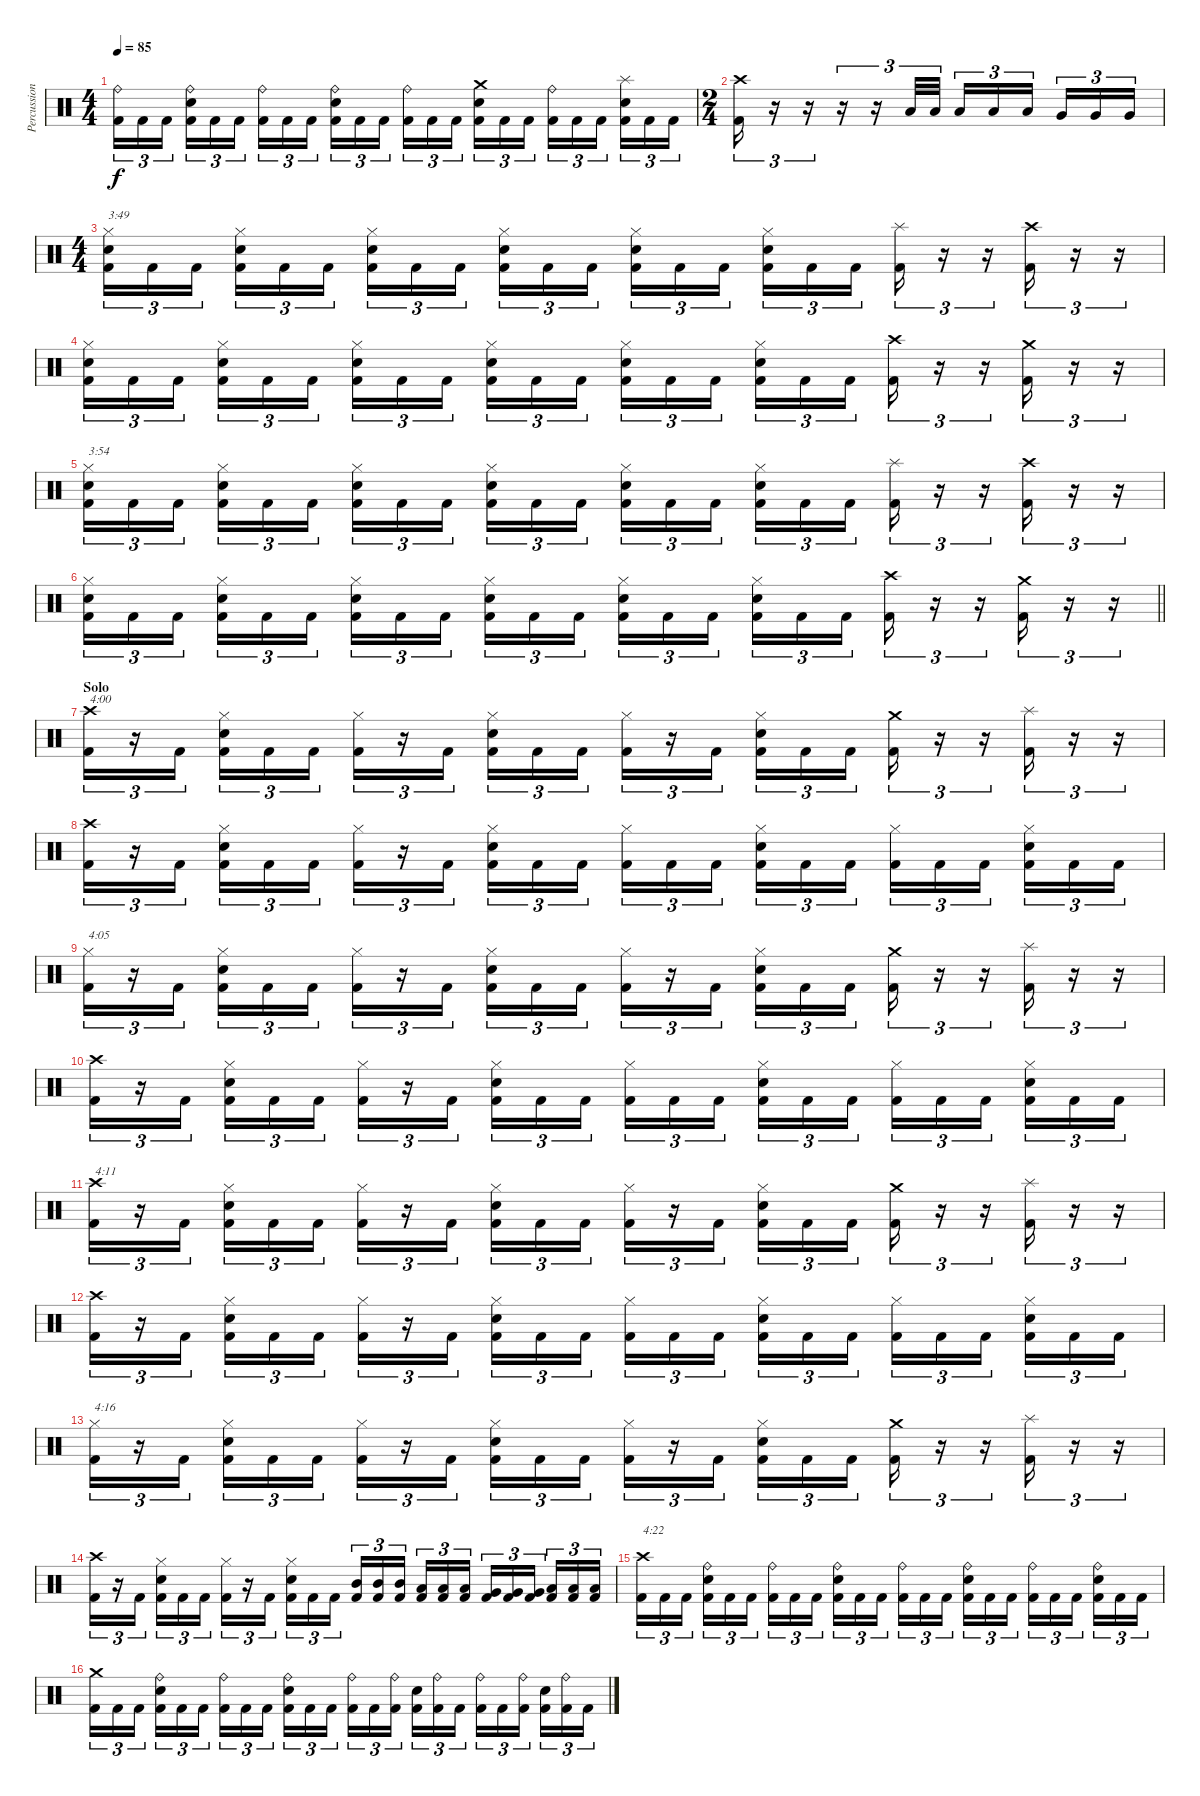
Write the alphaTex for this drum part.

\track ("Percussion" "Percussion") {instrument percussion}
\staff {score}
\articulation defaults
\ts (4 4)
\tempo 85
\clef neutral
\ks c
("Ride (bell)" "Kick (hit) 2").16{tu (3 2) dy f} "Kick (hit) 2".16{tu (3 2)} "Kick (hit) 2".16{tu (3 2)} ("Ride (bell)" "Electric Snare (hit)" "Kick (hit) 2").16{tu (3 2)} "Kick (hit) 2".16{tu (3 2)} "Kick (hit) 2".16{tu (3 2)} ("Ride (bell)" "Kick (hit) 2").16{tu (3 2)} "Kick (hit) 2".16{tu (3 2)} "Kick (hit) 2".16{tu (3 2)} ("Ride (bell)" "Electric Snare (hit)" "Kick (hit) 2").16{tu (3 2)} "Kick (hit) 2".16{tu (3 2)} "Kick (hit) 2".16{tu (3 2)} ("Ride (bell)" "Kick (hit) 2").16{tu (3 2)} "Kick (hit) 2".16{tu (3 2)} "Kick (hit) 2".16{tu (3 2)} ("Crash medium (hit)" "Electric Snare (hit)" "Kick (hit) 2").16{tu (3 2)} "Kick (hit) 2".16{tu (3 2)} "Kick (hit) 2".16{tu (3 2)} ("Ride (bell)" "Kick (hit) 2").16{tu (3 2)} "Kick (hit) 2".16{tu (3 2)} "Kick (hit) 2".16{tu (3 2)} ("Splash (hit)" "Electric Snare (hit)" "Kick (hit) 2").16{tu (3 2)} "Kick (hit) 2".16{tu (3 2)} "Kick (hit) 2".16{tu (3 2)} |
\ts (2 4)
("Crash high (hit)" "Kick (hit) 2").16{tu (3 2)} r.16{tu (3 2)} r.16{tu (3 2)} r.16{tu (3 2)} r.16{tu (3 2)} "Low Tom (hit)".32{tu (3 2)} "Low Tom (hit)".32{tu (3 2)} "Low Tom (hit)".16{tu (3 2)} "Low Tom (hit)".16{tu (3 2)} "Low Tom (hit)".16{tu (3 2)} "Very Low Tom (hit)".16{tu (3 2)} "Very Low Tom (hit)".16{tu (3 2)} "Very Low Tom (hit)".16{tu (3 2)} |
\ts (4 4)
("Hi-Hat (closed)" "Electric Snare (hit)" "Kick (hit) 2").16{tu (3 2) txt "3:49"} "Kick (hit) 2".16{tu (3 2)} "Kick (hit) 2".16{tu (3 2)} ("Hi-Hat (closed)" "Electric Snare (hit)" "Kick (hit) 2").16{tu (3 2)} "Kick (hit) 2".16{tu (3 2)} "Kick (hit) 2".16{tu (3 2)} ("Hi-Hat (closed)" "Electric Snare (hit)" "Kick (hit) 2").16{tu (3 2)} "Kick (hit) 2".16{tu (3 2)} "Kick (hit) 2".16{tu (3 2)} ("Hi-Hat (closed)" "Electric Snare (hit)" "Kick (hit) 2").16{tu (3 2)} "Kick (hit) 2".16{tu (3 2)} "Kick (hit) 2".16{tu (3 2)} ("Hi-Hat (closed)" "Electric Snare (hit)" "Kick (hit) 2").16{tu (3 2)} "Kick (hit) 2".16{tu (3 2)} "Kick (hit) 2".16{tu (3 2)} ("Hi-Hat (closed)" "Electric Snare (hit)" "Kick (hit) 2").16{tu (3 2)} "Kick (hit) 2".16{tu (3 2)} "Kick (hit) 2".16{tu (3 2)} ("Splash (hit)" "Kick (hit) 2").16{tu (3 2)} r.16{tu (3 2)} r.16{tu (3 2)} ("Crash high (hit)" "Kick (hit) 2").16{tu (3 2)} r.16{tu (3 2)} r.16{tu (3 2)} |
("Hi-Hat (closed)" "Electric Snare (hit)" "Kick (hit) 2").16{tu (3 2)} "Kick (hit) 2".16{tu (3 2)} "Kick (hit) 2".16{tu (3 2)} ("Hi-Hat (closed)" "Electric Snare (hit)" "Kick (hit) 2").16{tu (3 2)} "Kick (hit) 2".16{tu (3 2)} "Kick (hit) 2".16{tu (3 2)} ("Hi-Hat (closed)" "Electric Snare (hit)" "Kick (hit) 2").16{tu (3 2)} "Kick (hit) 2".16{tu (3 2)} "Kick (hit) 2".16{tu (3 2)} ("Hi-Hat (closed)" "Electric Snare (hit)" "Kick (hit) 2").16{tu (3 2)} "Kick (hit) 2".16{tu (3 2)} "Kick (hit) 2".16{tu (3 2)} ("Hi-Hat (closed)" "Electric Snare (hit)" "Kick (hit) 2").16{tu (3 2)} "Kick (hit) 2".16{tu (3 2)} "Kick (hit) 2".16{tu (3 2)} ("Hi-Hat (closed)" "Electric Snare (hit)" "Kick (hit) 2").16{tu (3 2)} "Kick (hit) 2".16{tu (3 2)} "Kick (hit) 2".16{tu (3 2)} ("Crash high (hit)" "Kick (hit) 2").16{tu (3 2)} r.16{tu (3 2)} r.16{tu (3 2)} ("Crash medium (hit)" "Kick (hit) 2").16{tu (3 2)} r.16{tu (3 2)} r.16{tu (3 2)} |
("Hi-Hat (closed)" "Electric Snare (hit)" "Kick (hit) 2").16{tu (3 2) txt "3:54"} "Kick (hit) 2".16{tu (3 2)} "Kick (hit) 2".16{tu (3 2)} ("Hi-Hat (closed)" "Electric Snare (hit)" "Kick (hit) 2").16{tu (3 2)} "Kick (hit) 2".16{tu (3 2)} "Kick (hit) 2".16{tu (3 2)} ("Hi-Hat (closed)" "Electric Snare (hit)" "Kick (hit) 2").16{tu (3 2)} "Kick (hit) 2".16{tu (3 2)} "Kick (hit) 2".16{tu (3 2)} ("Hi-Hat (closed)" "Electric Snare (hit)" "Kick (hit) 2").16{tu (3 2)} "Kick (hit) 2".16{tu (3 2)} "Kick (hit) 2".16{tu (3 2)} ("Hi-Hat (closed)" "Electric Snare (hit)" "Kick (hit) 2").16{tu (3 2)} "Kick (hit) 2".16{tu (3 2)} "Kick (hit) 2".16{tu (3 2)} ("Hi-Hat (closed)" "Electric Snare (hit)" "Kick (hit) 2").16{tu (3 2)} "Kick (hit) 2".16{tu (3 2)} "Kick (hit) 2".16{tu (3 2)} ("Splash (hit)" "Kick (hit) 2").16{tu (3 2)} r.16{tu (3 2)} r.16{tu (3 2)} ("Crash high (hit)" "Kick (hit) 2").16{tu (3 2)} r.16{tu (3 2)} r.16{tu (3 2)} |
\barLineRight lightlight
("Hi-Hat (closed)" "Electric Snare (hit)" "Kick (hit) 2").16{tu (3 2)} "Kick (hit) 2".16{tu (3 2)} "Kick (hit) 2".16{tu (3 2)} ("Hi-Hat (closed)" "Electric Snare (hit)" "Kick (hit) 2").16{tu (3 2)} "Kick (hit) 2".16{tu (3 2)} "Kick (hit) 2".16{tu (3 2)} ("Hi-Hat (closed)" "Electric Snare (hit)" "Kick (hit) 2").16{tu (3 2)} "Kick (hit) 2".16{tu (3 2)} "Kick (hit) 2".16{tu (3 2)} ("Hi-Hat (closed)" "Electric Snare (hit)" "Kick (hit) 2").16{tu (3 2)} "Kick (hit) 2".16{tu (3 2)} "Kick (hit) 2".16{tu (3 2)} ("Hi-Hat (closed)" "Electric Snare (hit)" "Kick (hit) 2").16{tu (3 2)} "Kick (hit) 2".16{tu (3 2)} "Kick (hit) 2".16{tu (3 2)} ("Hi-Hat (closed)" "Electric Snare (hit)" "Kick (hit) 2").16{tu (3 2)} "Kick (hit) 2".16{tu (3 2)} "Kick (hit) 2".16{tu (3 2)} ("Crash high (hit)" "Kick (hit) 2").16{tu (3 2)} r.16{tu (3 2)} r.16{tu (3 2)} ("Crash medium (hit)" "Kick (hit) 2").16{tu (3 2)} r.16{tu (3 2)} r.16{tu (3 2)} |
\section ("" "Solo")
("Crash high (hit)" "Kick (hit) 2").16{tu (3 2) txt "4:00"} r.16{tu (3 2)} "Kick (hit) 2".16{tu (3 2)} ("Hi-Hat (closed)" "Electric Snare (hit)" "Kick (hit) 2").16{tu (3 2)} "Kick (hit) 2".16{tu (3 2)} "Kick (hit) 2".16{tu (3 2)} ("Hi-Hat (closed)" "Kick (hit) 2").16{tu (3 2)} r.16{tu (3 2)} "Kick (hit) 2".16{tu (3 2)} ("Hi-Hat (closed)" "Electric Snare (hit)" "Kick (hit) 2").16{tu (3 2)} "Kick (hit) 2".16{tu (3 2)} "Kick (hit) 2".16{tu (3 2)} ("Hi-Hat (closed)" "Kick (hit) 2").16{tu (3 2)} r.16{tu (3 2)} "Kick (hit) 2".16{tu (3 2)} ("Hi-Hat (closed)" "Electric Snare (hit)" "Kick (hit) 2").16{tu (3 2)} "Kick (hit) 2".16{tu (3 2)} "Kick (hit) 2".16{tu (3 2)} ("Crash medium (hit)" "Kick (hit) 2").16{tu (3 2)} r.16{tu (3 2)} r.16{tu (3 2)} ("Splash (hit)" "Kick (hit) 2").16{tu (3 2)} r.16{tu (3 2)} r.16{tu (3 2)} |
("Crash high (hit)" "Kick (hit) 2").16{tu (3 2)} r.16{tu (3 2)} "Kick (hit) 2".16{tu (3 2)} ("Hi-Hat (closed)" "Electric Snare (hit)" "Kick (hit) 2").16{tu (3 2)} "Kick (hit) 2".16{tu (3 2)} "Kick (hit) 2".16{tu (3 2)} ("Hi-Hat (closed)" "Kick (hit) 2").16{tu (3 2)} r.16{tu (3 2)} "Kick (hit) 2".16{tu (3 2)} ("Hi-Hat (closed)" "Electric Snare (hit)" "Kick (hit) 2").16{tu (3 2)} "Kick (hit) 2".16{tu (3 2)} "Kick (hit) 2".16{tu (3 2)} ("Hi-Hat (closed)" "Kick (hit) 2").16{tu (3 2)} "Kick (hit) 2".16{tu (3 2)} "Kick (hit) 2".16{tu (3 2)} ("Hi-Hat (closed)" "Electric Snare (hit)" "Kick (hit) 2").16{tu (3 2)} "Kick (hit) 2".16{tu (3 2)} "Kick (hit) 2".16{tu (3 2)} ("Hi-Hat (closed)" "Kick (hit) 2").16{tu (3 2)} "Kick (hit) 2".16{tu (3 2)} "Kick (hit) 2".16{tu (3 2)} ("Hi-Hat (closed)" "Electric Snare (hit)" "Kick (hit) 2").16{tu (3 2)} "Kick (hit) 2".16{tu (3 2)} "Kick (hit) 2".16{tu (3 2)} |
("Hi-Hat (closed)" "Kick (hit) 2").16{tu (3 2) txt "4:05"} r.16{tu (3 2)} "Kick (hit) 2".16{tu (3 2)} ("Hi-Hat (closed)" "Electric Snare (hit)" "Kick (hit) 2").16{tu (3 2)} "Kick (hit) 2".16{tu (3 2)} "Kick (hit) 2".16{tu (3 2)} ("Hi-Hat (closed)" "Kick (hit) 2").16{tu (3 2)} r.16{tu (3 2)} "Kick (hit) 2".16{tu (3 2)} ("Hi-Hat (closed)" "Electric Snare (hit)" "Kick (hit) 2").16{tu (3 2)} "Kick (hit) 2".16{tu (3 2)} "Kick (hit) 2".16{tu (3 2)} ("Hi-Hat (closed)" "Kick (hit) 2").16{tu (3 2)} r.16{tu (3 2)} "Kick (hit) 2".16{tu (3 2)} ("Hi-Hat (closed)" "Electric Snare (hit)" "Kick (hit) 2").16{tu (3 2)} "Kick (hit) 2".16{tu (3 2)} "Kick (hit) 2".16{tu (3 2)} ("Crash medium (hit)" "Kick (hit) 2").16{tu (3 2)} r.16{tu (3 2)} r.16{tu (3 2)} ("Splash (hit)" "Kick (hit) 2").16{tu (3 2)} r.16{tu (3 2)} r.16{tu (3 2)} |
("Crash high (hit)" "Kick (hit) 2").16{tu (3 2)} r.16{tu (3 2)} "Kick (hit) 2".16{tu (3 2)} ("Hi-Hat (closed)" "Electric Snare (hit)" "Kick (hit) 2").16{tu (3 2)} "Kick (hit) 2".16{tu (3 2)} "Kick (hit) 2".16{tu (3 2)} ("Hi-Hat (closed)" "Kick (hit) 2").16{tu (3 2)} r.16{tu (3 2)} "Kick (hit) 2".16{tu (3 2)} ("Hi-Hat (closed)" "Electric Snare (hit)" "Kick (hit) 2").16{tu (3 2)} "Kick (hit) 2".16{tu (3 2)} "Kick (hit) 2".16{tu (3 2)} ("Hi-Hat (closed)" "Kick (hit) 2").16{tu (3 2)} "Kick (hit) 2".16{tu (3 2)} "Kick (hit) 2".16{tu (3 2)} ("Hi-Hat (closed)" "Electric Snare (hit)" "Kick (hit) 2").16{tu (3 2)} "Kick (hit) 2".16{tu (3 2)} "Kick (hit) 2".16{tu (3 2)} ("Hi-Hat (closed)" "Kick (hit) 2").16{tu (3 2)} "Kick (hit) 2".16{tu (3 2)} "Kick (hit) 2".16{tu (3 2)} ("Hi-Hat (closed)" "Electric Snare (hit)" "Kick (hit) 2").16{tu (3 2)} "Kick (hit) 2".16{tu (3 2)} "Kick (hit) 2".16{tu (3 2)} |
("Crash high (hit)" "Kick (hit) 2").16{tu (3 2) txt "4:11"} r.16{tu (3 2)} "Kick (hit) 2".16{tu (3 2)} ("Hi-Hat (closed)" "Electric Snare (hit)" "Kick (hit) 2").16{tu (3 2)} "Kick (hit) 2".16{tu (3 2)} "Kick (hit) 2".16{tu (3 2)} ("Hi-Hat (closed)" "Kick (hit) 2").16{tu (3 2)} r.16{tu (3 2)} "Kick (hit) 2".16{tu (3 2)} ("Hi-Hat (closed)" "Electric Snare (hit)" "Kick (hit) 2").16{tu (3 2)} "Kick (hit) 2".16{tu (3 2)} "Kick (hit) 2".16{tu (3 2)} ("Hi-Hat (closed)" "Kick (hit) 2").16{tu (3 2)} r.16{tu (3 2)} "Kick (hit) 2".16{tu (3 2)} ("Hi-Hat (closed)" "Electric Snare (hit)" "Kick (hit) 2").16{tu (3 2)} "Kick (hit) 2".16{tu (3 2)} "Kick (hit) 2".16{tu (3 2)} ("Crash medium (hit)" "Kick (hit) 2").16{tu (3 2)} r.16{tu (3 2)} r.16{tu (3 2)} ("Splash (hit)" "Kick (hit) 2").16{tu (3 2)} r.16{tu (3 2)} r.16{tu (3 2)} |
("Crash high (hit)" "Kick (hit) 2").16{tu (3 2)} r.16{tu (3 2)} "Kick (hit) 2".16{tu (3 2)} ("Hi-Hat (closed)" "Electric Snare (hit)" "Kick (hit) 2").16{tu (3 2)} "Kick (hit) 2".16{tu (3 2)} "Kick (hit) 2".16{tu (3 2)} ("Hi-Hat (closed)" "Kick (hit) 2").16{tu (3 2)} r.16{tu (3 2)} "Kick (hit) 2".16{tu (3 2)} ("Hi-Hat (closed)" "Electric Snare (hit)" "Kick (hit) 2").16{tu (3 2)} "Kick (hit) 2".16{tu (3 2)} "Kick (hit) 2".16{tu (3 2)} ("Hi-Hat (closed)" "Kick (hit) 2").16{tu (3 2)} "Kick (hit) 2".16{tu (3 2)} "Kick (hit) 2".16{tu (3 2)} ("Hi-Hat (closed)" "Electric Snare (hit)" "Kick (hit) 2").16{tu (3 2)} "Kick (hit) 2".16{tu (3 2)} "Kick (hit) 2".16{tu (3 2)} ("Hi-Hat (closed)" "Kick (hit) 2").16{tu (3 2)} "Kick (hit) 2".16{tu (3 2)} "Kick (hit) 2".16{tu (3 2)} ("Hi-Hat (closed)" "Electric Snare (hit)" "Kick (hit) 2").16{tu (3 2)} "Kick (hit) 2".16{tu (3 2)} "Kick (hit) 2".16{tu (3 2)} |
("Hi-Hat (closed)" "Kick (hit) 2").16{tu (3 2) txt "4:16"} r.16{tu (3 2)} "Kick (hit) 2".16{tu (3 2)} ("Hi-Hat (closed)" "Electric Snare (hit)" "Kick (hit) 2").16{tu (3 2)} "Kick (hit) 2".16{tu (3 2)} "Kick (hit) 2".16{tu (3 2)} ("Hi-Hat (closed)" "Kick (hit) 2").16{tu (3 2)} r.16{tu (3 2)} "Kick (hit) 2".16{tu (3 2)} ("Hi-Hat (closed)" "Electric Snare (hit)" "Kick (hit) 2").16{tu (3 2)} "Kick (hit) 2".16{tu (3 2)} "Kick (hit) 2".16{tu (3 2)} ("Hi-Hat (closed)" "Kick (hit) 2").16{tu (3 2)} r.16{tu (3 2)} "Kick (hit) 2".16{tu (3 2)} ("Hi-Hat (closed)" "Electric Snare (hit)" "Kick (hit) 2").16{tu (3 2)} "Kick (hit) 2".16{tu (3 2)} "Kick (hit) 2".16{tu (3 2)} ("Crash medium (hit)" "Kick (hit) 2").16{tu (3 2)} r.16{tu (3 2)} r.16{tu (3 2)} ("Splash (hit)" "Kick (hit) 2").16{tu (3 2)} r.16{tu (3 2)} r.16{tu (3 2)} |
("Crash high (hit)" "Kick (hit) 2").16{tu (3 2)} r.16{tu (3 2)} "Kick (hit) 2".16{tu (3 2)} ("Hi-Hat (closed)" "Electric Snare (hit)" "Kick (hit) 2").16{tu (3 2)} "Kick (hit) 2".16{tu (3 2)} "Kick (hit) 2".16{tu (3 2)} ("Hi-Hat (closed)" "Kick (hit) 2").16{tu (3 2)} r.16{tu (3 2)} "Kick (hit) 2".16{tu (3 2)} ("Hi-Hat (closed)" "Electric Snare (hit)" "Kick (hit) 2").16{tu (3 2)} "Kick (hit) 2".16{tu (3 2)} "Kick (hit) 2".16{tu (3 2)} ("Mid Tom (hit)" "Kick (hit) 2").16{tu (3 2)} ("Mid Tom (hit)" "Kick (hit) 2").16{tu (3 2)} ("Mid Tom (hit)" "Kick (hit) 2").16{tu (3 2)} ("Low Tom (hit)" "Kick (hit) 2").16{tu (3 2)} ("Low Tom (hit)" "Kick (hit) 2").16{tu (3 2)} ("Low Tom (hit)" "Kick (hit) 2").16{tu (3 2)} ("Very Low Tom (hit)" "Kick (hit) 2").16{tu (3 2)} ("Very Low Tom (hit)" "Kick (hit) 2").16{tu (3 2)} ("Very Low Tom (hit)" "Kick (hit) 2").16{tu (3 2)} ("Low Floor Tom (hit)" "Kick (hit) 2").16{tu (3 2)} ("Low Floor Tom (hit)" "Kick (hit) 2").16{tu (3 2)} ("Low Floor Tom (hit)" "Kick (hit) 2").16{tu (3 2)} |
("Crash high (hit)" "Kick (hit) 2").16{tu (3 2) txt "4:22"} "Kick (hit) 2".16{tu (3 2)} "Kick (hit) 2".16{tu (3 2)} ("Ride (bell)" "Electric Snare (hit)" "Kick (hit) 2").16{tu (3 2)} "Kick (hit) 2".16{tu (3 2)} "Kick (hit) 2".16{tu (3 2)} ("Ride (bell)" "Kick (hit) 2").16{tu (3 2)} "Kick (hit) 2".16{tu (3 2)} "Kick (hit) 2".16{tu (3 2)} ("Ride (bell)" "Electric Snare (hit)" "Kick (hit) 2").16{tu (3 2)} "Kick (hit) 2".16{tu (3 2)} "Kick (hit) 2".16{tu (3 2)} ("Ride (bell)" "Kick (hit) 2").16{tu (3 2)} "Kick (hit) 2".16{tu (3 2)} "Kick (hit) 2".16{tu (3 2)} ("Ride (bell)" "Electric Snare (hit)" "Kick (hit) 2").16{tu (3 2)} "Kick (hit) 2".16{tu (3 2)} "Kick (hit) 2".16{tu (3 2)} ("Ride (bell)" "Kick (hit) 2").16{tu (3 2)} "Kick (hit) 2".16{tu (3 2)} "Kick (hit) 2".16{tu (3 2)} ("Ride (bell)" "Electric Snare (hit)" "Kick (hit) 2").16{tu (3 2)} "Kick (hit) 2".16{tu (3 2)} "Kick (hit) 2".16{tu (3 2)} |
("Crash medium (hit)" "Kick (hit) 2").16{tu (3 2)} "Kick (hit) 2".16{tu (3 2)} "Kick (hit) 2".16{tu (3 2)} ("Ride (bell)" "Electric Snare (hit)" "Kick (hit) 2").16{tu (3 2)} "Kick (hit) 2".16{tu (3 2)} "Kick (hit) 2".16{tu (3 2)} ("Ride (bell)" "Kick (hit) 2").16{tu (3 2)} "Kick (hit) 2".16{tu (3 2)} "Kick (hit) 2".16{tu (3 2)} ("Ride (bell)" "Electric Snare (hit)" "Kick (hit) 2").16{tu (3 2)} "Kick (hit) 2".16{tu (3 2)} "Kick (hit) 2".16{tu (3 2)} ("Ride (bell)" "Kick (hit) 2").16{tu (3 2)} "Kick (hit) 2".16{tu (3 2)} ("Ride (bell)" "Kick (hit) 2").16{tu (3 2)} ("Electric Snare (hit)" "Kick (hit) 2").16{tu (3 2)} ("Ride (bell)" "Kick (hit) 2").16{tu (3 2)} "Kick (hit) 2".16{tu (3 2)} ("Ride (bell)" "Kick (hit) 2").16{tu (3 2)} "Kick (hit) 2".16{tu (3 2)} ("Ride (bell)" "Kick (hit) 2").16{tu (3 2)} ("Electric Snare (hit)" "Kick (hit) 2").16{tu (3 2)} ("Ride (bell)" "Kick (hit) 2").16{tu (3 2)} "Kick (hit) 2".16{tu (3 2)}
